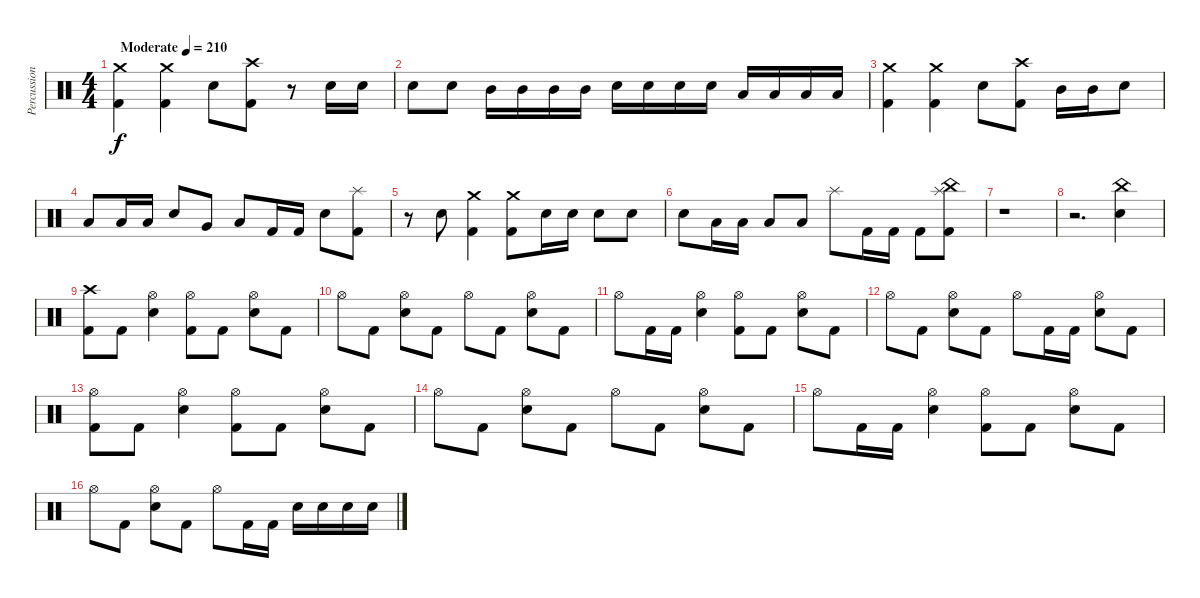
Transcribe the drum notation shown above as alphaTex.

\track ("Percussion" "Percussion") {instrument percussion}
\staff {score}
\articulation defaults
\ts (4 4)
\tempo (210 "Moderate")
\clef neutral
\ks c
("Crash medium (hit)" "Kick (hit) 2").4{dy f} ("Crash medium (hit)" "Kick (hit) 2").4 "Electric Snare (hit)".8 ("Crash high (hit)" "Kick (hit) 2").8 r.8 "Electric Snare (hit)".16 "Electric Snare (hit)".16 |
"Electric Snare (hit)".8 "Electric Snare (hit)".8 "Mid Tom (hit)".16 "Mid Tom (hit)".16 "Mid Tom (hit)".16 "Mid Tom (hit)".16 "Electric Snare (hit)".16 "Electric Snare (hit)".16 "Electric Snare (hit)".16 "Electric Snare (hit)".16 "Low Tom (hit)".16 "Low Tom (hit)".16 "Low Tom (hit)".16 "Low Tom (hit)".16 |
("Crash medium (hit)" "Kick (hit) 2").4 ("Crash medium (hit)" "Kick (hit) 2").4 "Electric Snare (hit)".8 ("Crash high (hit)" "Kick (hit) 2").8 "Mid Tom (hit)".16 "Mid Tom (hit)".16 "Electric Snare (hit)".8 |
"Low Tom (hit)".8 "Low Tom (hit)".16 "Low Tom (hit)".16 "Electric Snare (hit)".8 "Very Low Tom (hit)".8 "Low Floor Tom (hit)".8 "Kick (hit) 2".16 "Kick (hit) 2".16 "Electric Snare (hit)".8 ("Splash (hit)" "Kick (hit) 2").8 |
r.8 "Electric Snare (hit)".8 ("Crash medium (hit)" "Kick (hit) 2").4 ("Crash medium (hit)" "Kick (hit) 2").8 "Electric Snare (hit)".16 "Electric Snare (hit)".16 "Electric Snare (hit)".8 "Electric Snare (hit)".8 |
"Electric Snare (hit)".8 "Low Tom (hit)".16 "Low Tom (hit)".16 "Low Tom (hit)".8 "Low Tom (hit)".8 "Splash (hit)".8 "Kick (hit) 2".16 "Kick (hit) 2".16 "Kick (hit) 2".8 ("Splash (hit)" "China (hit)" "Kick (hit) 2").8 |
r.1 |
r.2{d} ("China (hit)" "Electric Snare (hit)").4 |
("Crash high (hit)" "Kick (hit) 2").8 "Kick (hit) 2".8 ("Hi-Hat (open)" "Electric Snare (hit)").4 ("Hi-Hat (open)" "Kick (hit) 2").8 "Kick (hit) 2".8 ("Hi-Hat (open)" "Electric Snare (hit)").8 "Kick (hit) 2".8 |
"Hi-Hat (open)".8 "Kick (hit) 2".8 ("Hi-Hat (open)" "Electric Snare (hit)").8 "Kick (hit) 2".8 "Hi-Hat (open)".8 "Kick (hit) 2".8 ("Hi-Hat (open)" "Electric Snare (hit)").8 "Kick (hit) 2".8 |
"Hi-Hat (open)".8 "Kick (hit) 2".16 "Kick (hit) 2".16 ("Hi-Hat (open)" "Electric Snare (hit)").4 ("Hi-Hat (open)" "Kick (hit) 2").8 "Kick (hit) 2".8 ("Hi-Hat (open)" "Electric Snare (hit)").8 "Kick (hit) 2".8 |
"Hi-Hat (open)".8 "Kick (hit) 2".8 ("Hi-Hat (open)" "Electric Snare (hit)").8 "Kick (hit) 2".8 "Hi-Hat (open)".8 "Kick (hit) 2".16 "Kick (hit) 2".16 ("Hi-Hat (open)" "Electric Snare (hit)").8 "Kick (hit) 2".8 |
("Hi-Hat (open)" "Kick (hit) 2").8 "Kick (hit) 2".8 ("Hi-Hat (open)" "Electric Snare (hit)").4 ("Hi-Hat (open)" "Kick (hit) 2").8 "Kick (hit) 2".8 ("Hi-Hat (open)" "Electric Snare (hit)").8 "Kick (hit) 2".8 |
"Hi-Hat (open)".8 "Kick (hit) 2".8 ("Hi-Hat (open)" "Electric Snare (hit)").8 "Kick (hit) 2".8 "Hi-Hat (open)".8 "Kick (hit) 2".8 ("Hi-Hat (open)" "Electric Snare (hit)").8 "Kick (hit) 2".8 |
"Hi-Hat (open)".8 "Kick (hit) 2".16 "Kick (hit) 2".16 ("Hi-Hat (open)" "Electric Snare (hit)").4 ("Hi-Hat (open)" "Kick (hit) 2").8 "Kick (hit) 2".8 ("Hi-Hat (open)" "Electric Snare (hit)").8 "Kick (hit) 2".8 |
"Hi-Hat (open)".8 "Kick (hit) 2".8 ("Hi-Hat (open)" "Electric Snare (hit)").8 "Kick (hit) 2".8 "Hi-Hat (open)".8 "Kick (hit) 2".16 "Kick (hit) 2".16 "Electric Snare (hit)".16 "Electric Snare (hit)".16 "Electric Snare (hit)".16 "Electric Snare (hit)".16
